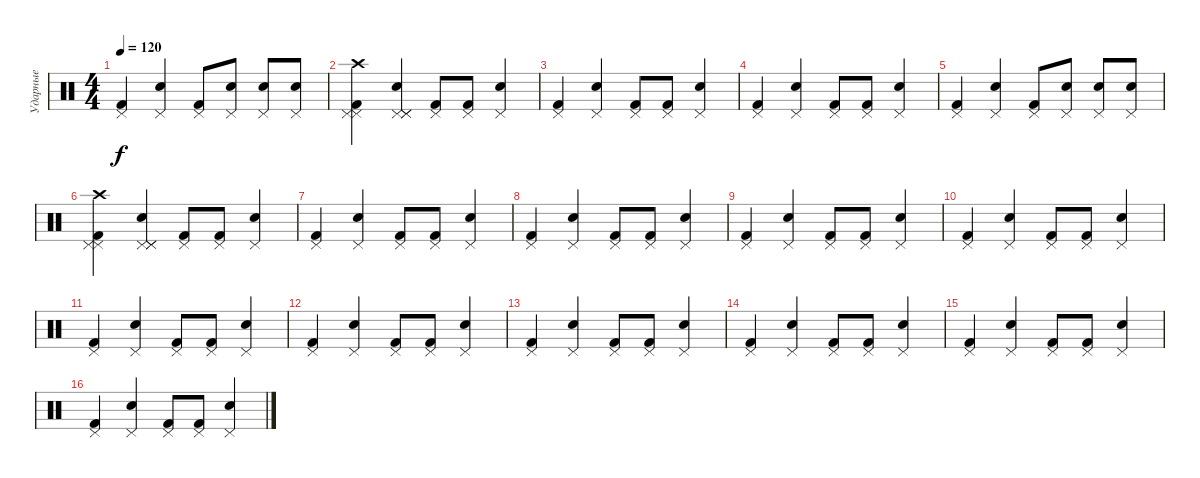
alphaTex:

\track ("Ударные" "Ударные") {instrument percussion}
\staff {score}
\articulation defaults
\ts (4 4)
\tempo 120
\clef neutral
\ks c
("Kick (hit) 2" "Pedal Hi-Hat (hit)").4{dy f} ("Electric Snare (hit)" "Pedal Hi-Hat (hit)").4 ("Kick (hit) 2" "Pedal Hi-Hat (hit)").8 ("Electric Snare (hit)" "Pedal Hi-Hat (hit)").8 ("Electric Snare (hit)" "Pedal Hi-Hat (hit)").8 ("Electric Snare (hit)" "Pedal Hi-Hat (hit)").8 |
("Kick (hit) 2" "Pedal Hi-Hat (hit)" "Crash high (hit)" "Pedal Hi-Hat (hit)").4 ("Electric Snare (hit)" "Pedal Hi-Hat (hit)" "Pedal Hi-Hat (hit)" "Pedal Hi-Hat (hit)").4 ("Kick (hit) 2" "Pedal Hi-Hat (hit)").8 ("Kick (hit) 2" "Pedal Hi-Hat (hit)").8 ("Electric Snare (hit)" "Pedal Hi-Hat (hit)").4 |
("Kick (hit) 2" "Pedal Hi-Hat (hit)").4 ("Electric Snare (hit)" "Pedal Hi-Hat (hit)").4 ("Kick (hit) 2" "Pedal Hi-Hat (hit)").8 ("Kick (hit) 2" "Pedal Hi-Hat (hit)").8 ("Electric Snare (hit)" "Pedal Hi-Hat (hit)").4 |
("Kick (hit) 2" "Pedal Hi-Hat (hit)").4 ("Electric Snare (hit)" "Pedal Hi-Hat (hit)").4 ("Kick (hit) 2" "Pedal Hi-Hat (hit)").8 ("Kick (hit) 2" "Pedal Hi-Hat (hit)").8 ("Electric Snare (hit)" "Pedal Hi-Hat (hit)").4 |
("Kick (hit) 2" "Pedal Hi-Hat (hit)").4 ("Electric Snare (hit)" "Pedal Hi-Hat (hit)").4 ("Kick (hit) 2" "Pedal Hi-Hat (hit)").8 ("Electric Snare (hit)" "Pedal Hi-Hat (hit)").8 ("Electric Snare (hit)" "Pedal Hi-Hat (hit)").8 ("Electric Snare (hit)" "Pedal Hi-Hat (hit)").8 |
("Kick (hit) 2" "Pedal Hi-Hat (hit)" "Crash high (hit)" "Pedal Hi-Hat (hit)").4 ("Electric Snare (hit)" "Pedal Hi-Hat (hit)" "Pedal Hi-Hat (hit)" "Pedal Hi-Hat (hit)").4 ("Kick (hit) 2" "Pedal Hi-Hat (hit)").8 ("Kick (hit) 2" "Pedal Hi-Hat (hit)").8 ("Electric Snare (hit)" "Pedal Hi-Hat (hit)").4 |
("Kick (hit) 2" "Pedal Hi-Hat (hit)").4 ("Electric Snare (hit)" "Pedal Hi-Hat (hit)").4 ("Kick (hit) 2" "Pedal Hi-Hat (hit)").8 ("Kick (hit) 2" "Pedal Hi-Hat (hit)").8 ("Electric Snare (hit)" "Pedal Hi-Hat (hit)").4 |
("Kick (hit) 2" "Pedal Hi-Hat (hit)").4 ("Electric Snare (hit)" "Pedal Hi-Hat (hit)").4 ("Kick (hit) 2" "Pedal Hi-Hat (hit)").8 ("Kick (hit) 2" "Pedal Hi-Hat (hit)").8 ("Electric Snare (hit)" "Pedal Hi-Hat (hit)").4 |
("Kick (hit) 2" "Pedal Hi-Hat (hit)").4 ("Electric Snare (hit)" "Pedal Hi-Hat (hit)").4 ("Kick (hit) 2" "Pedal Hi-Hat (hit)").8 ("Kick (hit) 2" "Pedal Hi-Hat (hit)").8 ("Electric Snare (hit)" "Pedal Hi-Hat (hit)").4 |
("Kick (hit) 2" "Pedal Hi-Hat (hit)").4 ("Electric Snare (hit)" "Pedal Hi-Hat (hit)").4 ("Kick (hit) 2" "Pedal Hi-Hat (hit)").8 ("Kick (hit) 2" "Pedal Hi-Hat (hit)").8 ("Electric Snare (hit)" "Pedal Hi-Hat (hit)").4 |
("Kick (hit) 2" "Pedal Hi-Hat (hit)").4 ("Electric Snare (hit)" "Pedal Hi-Hat (hit)").4 ("Kick (hit) 2" "Pedal Hi-Hat (hit)").8 ("Kick (hit) 2" "Pedal Hi-Hat (hit)").8 ("Electric Snare (hit)" "Pedal Hi-Hat (hit)").4 |
("Kick (hit) 2" "Pedal Hi-Hat (hit)").4 ("Electric Snare (hit)" "Pedal Hi-Hat (hit)").4 ("Kick (hit) 2" "Pedal Hi-Hat (hit)").8 ("Kick (hit) 2" "Pedal Hi-Hat (hit)").8 ("Electric Snare (hit)" "Pedal Hi-Hat (hit)").4 |
("Kick (hit) 2" "Pedal Hi-Hat (hit)").4 ("Electric Snare (hit)" "Pedal Hi-Hat (hit)").4 ("Kick (hit) 2" "Pedal Hi-Hat (hit)").8 ("Kick (hit) 2" "Pedal Hi-Hat (hit)").8 ("Electric Snare (hit)" "Pedal Hi-Hat (hit)").4 |
("Kick (hit) 2" "Pedal Hi-Hat (hit)").4 ("Electric Snare (hit)" "Pedal Hi-Hat (hit)").4 ("Kick (hit) 2" "Pedal Hi-Hat (hit)").8 ("Kick (hit) 2" "Pedal Hi-Hat (hit)").8 ("Electric Snare (hit)" "Pedal Hi-Hat (hit)").4 |
("Kick (hit) 2" "Pedal Hi-Hat (hit)").4 ("Electric Snare (hit)" "Pedal Hi-Hat (hit)").4 ("Kick (hit) 2" "Pedal Hi-Hat (hit)").8 ("Kick (hit) 2" "Pedal Hi-Hat (hit)").8 ("Electric Snare (hit)" "Pedal Hi-Hat (hit)").4 |
("Kick (hit) 2" "Pedal Hi-Hat (hit)").4 ("Electric Snare (hit)" "Pedal Hi-Hat (hit)").4 ("Kick (hit) 2" "Pedal Hi-Hat (hit)").8 ("Kick (hit) 2" "Pedal Hi-Hat (hit)").8 ("Electric Snare (hit)" "Pedal Hi-Hat (hit)").4
